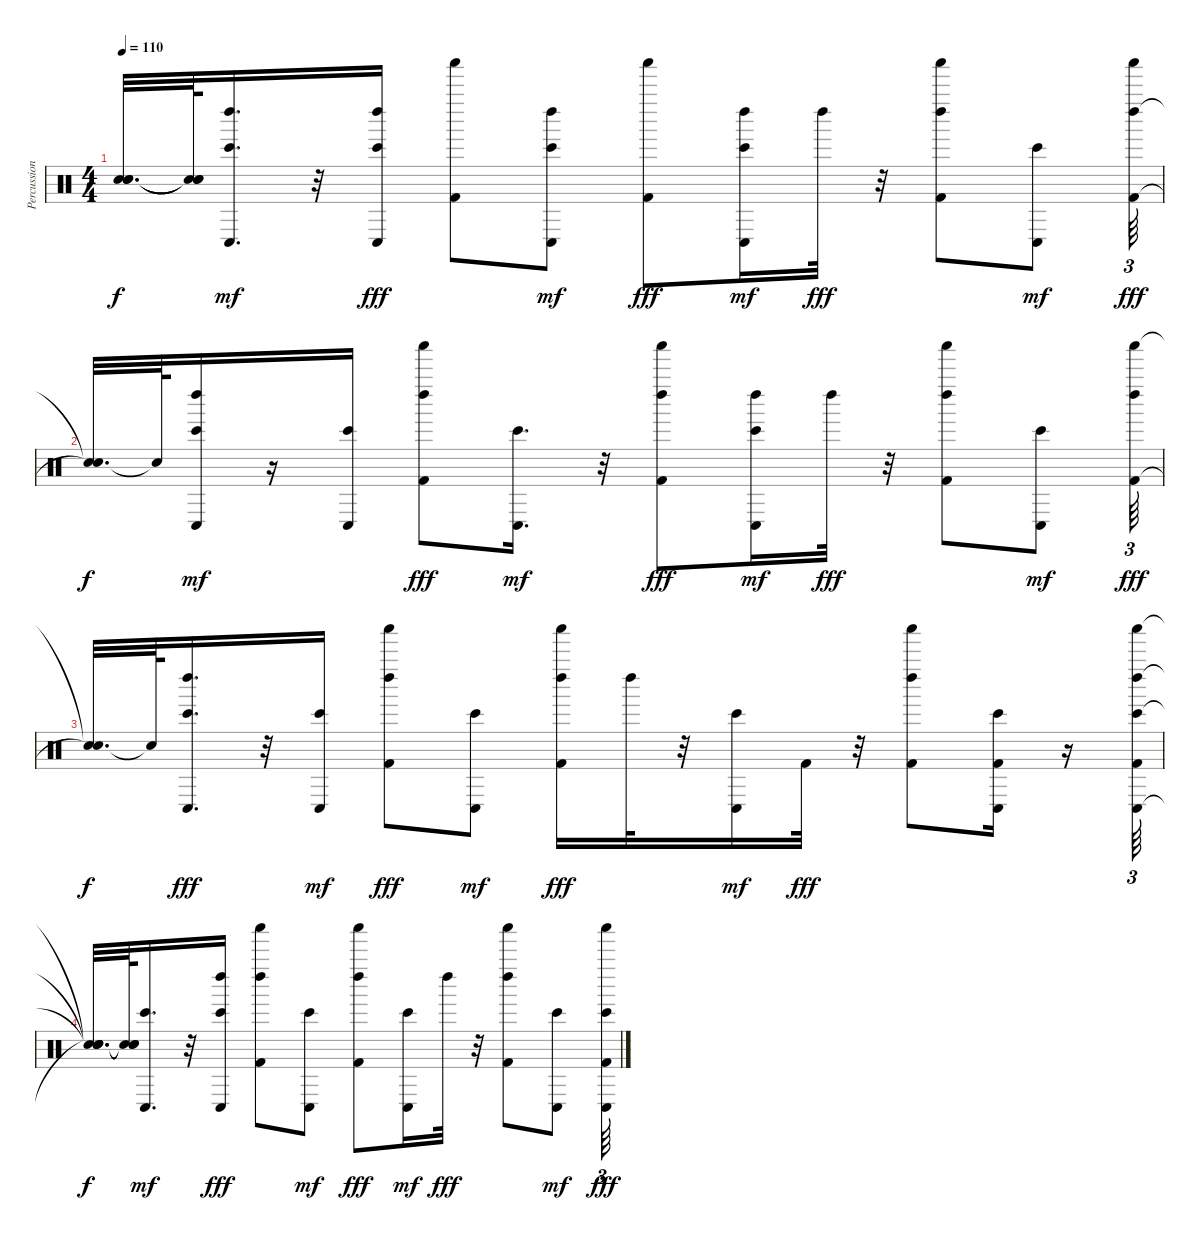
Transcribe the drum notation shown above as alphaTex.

\track ("Percussion" "Percussion") {instrument percussion}
\staff {score}
\articulation defaults
\ts (4 4)
\tempo 110
\clef neutral
\ks c
("Snare (hit)"{t} "Snare (hit)"{t} "Snare (hit)"{t}).32{d dy f} ("Snare (hit)"{t} "Snare (hit)"{t} "Snare (hit)"{t}).64 ("Bongo High (hit)" "Left Maraca (hit)" "Conga low (hit)").16{d dy mf} r.32 ("Bongo High (hit)" "Conga low (hit)" "Left Maraca (hit)").16{dy fff} ("Shaker (hit)" "Kick (hit) 2").8 ("Left Maraca (hit)" "Conga low (hit)" "Bongo High (hit)").8{dy mf} ("Kick (hit) 2" "Shaker (hit)").8{dy fff} ("Conga low (hit)" "Left Maraca (hit)" "Bongo High (hit)").16{dy mf} "Left Maraca (hit)".32{dy fff} r.32 ("Kick (hit) 2" "Shaker (hit)" "Left Maraca (hit)").8 ("Bongo High (hit)" "Conga low (hit)").8{dy mf} ("Left Maraca (hit)" "Kick (hit) 2" "Shaker (hit)").64{tu (3 2) dy fff} |
("Snare (hit)"{t} "Snare (hit)"{t}).32{d dy f} "Snare (hit)"{t}.64 ("Conga low (hit)" "Left Maraca (hit)" "Bongo High (hit)").16{dy mf} r.16 ("Conga low (hit)" "Bongo High (hit)").16 ("Shaker (hit)" "Left Maraca (hit)" "Kick (hit) 2").8{dy fff} ("Bongo High (hit)" "Conga low (hit)").16{d dy mf} r.32 ("Kick (hit) 2" "Left Maraca (hit)" "Shaker (hit)").8{dy fff} ("Left Maraca (hit)" "Conga low (hit)" "Bongo High (hit)").16{dy mf} "Left Maraca (hit)".32{dy fff} r.32 ("Kick (hit) 2" "Left Maraca (hit)" "Shaker (hit)").8 ("Bongo High (hit)" "Conga low (hit)").8{dy mf} ("Kick (hit) 2" "Shaker (hit)" "Left Maraca (hit)").64{tu (3 2) dy fff} |
("Snare (hit)"{t} "Snare (hit)"{t}).32{d dy f} "Snare (hit)"{t}.64 ("Bongo High (hit)" "Conga low (hit)" "Left Maraca (hit)").16{d dy fff} r.32 ("Conga low (hit)" "Bongo High (hit)").16{dy mf} ("Shaker (hit)" "Kick (hit) 2" "Left Maraca (hit)").8{dy fff} ("Bongo High (hit)" "Conga low (hit)").8{dy mf} ("Kick (hit) 2" "Left Maraca (hit)" "Shaker (hit)").16{dy fff} "Left Maraca (hit)".32 r.32 ("Bongo High (hit)" "Conga low (hit)").16{dy mf} "Kick (hit) 2".32{dy fff} r.32 ("Shaker (hit)" "Left Maraca (hit)" "Kick (hit) 2").8 ("Conga low (hit)" "Bongo High (hit)" "Kick (hit) 2").16 r.16 ("Bongo High (hit)" "Shaker (hit)" "Conga low (hit)" "Left Maraca (hit)" "Kick (hit) 2").64{tu (3 2)} |
("Snare (hit)"{t} "Snare (hit)"{t} "Snare (hit)"{t} "Snare (hit)"{t}).32{d dy f} ("Snare (hit)"{t} "Snare (hit)"{t} "Snare (hit)"{t}).64 ("Conga low (hit)" "Bongo High (hit)").16{d dy mf} r.32 ("Bongo High (hit)" "Conga low (hit)" "Left Maraca (hit)").16{dy fff} ("Shaker (hit)" "Left Maraca (hit)" "Kick (hit) 2").8 ("Conga low (hit)" "Bongo High (hit)").8{dy mf} ("Kick (hit) 2" "Left Maraca (hit)" "Shaker (hit)").8{dy fff} ("Conga low (hit)" "Bongo High (hit)").16{dy mf} "Left Maraca (hit)".32{dy fff} r.32 ("Shaker (hit)" "Left Maraca (hit)" "Kick (hit) 2").8 ("Bongo High (hit)" "Conga low (hit)").8{dy mf} ("Shaker (hit)" "Conga low (hit)" "Bongo High (hit)" "Kick (hit) 2").64{tu (3 2) dy fff}
